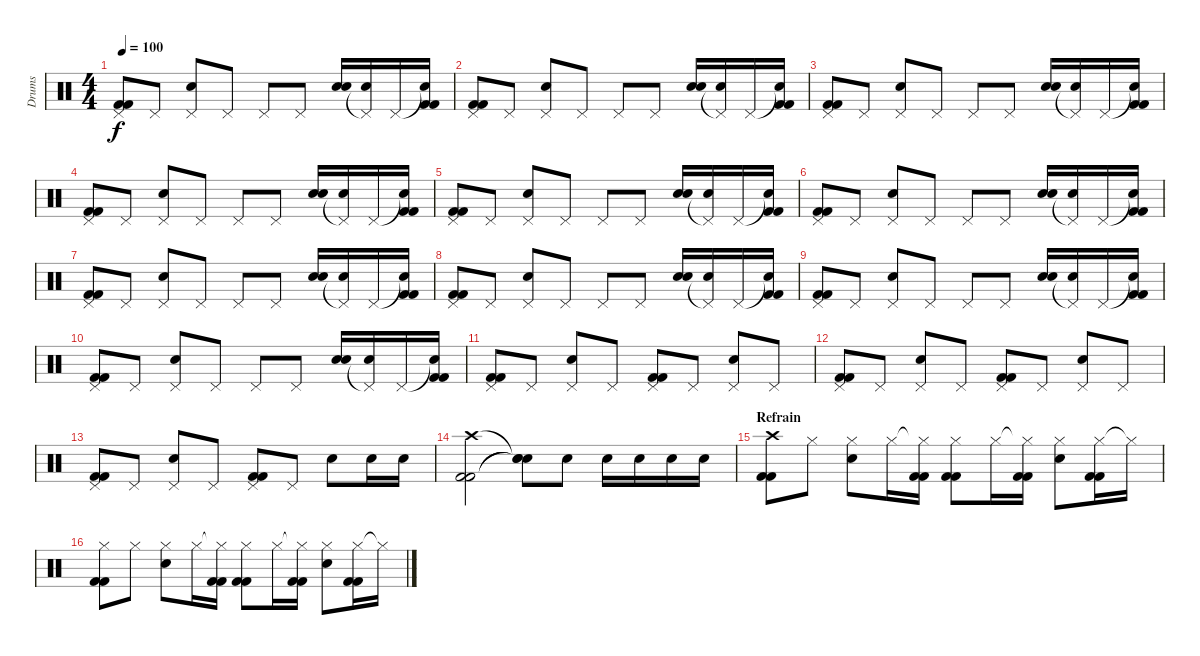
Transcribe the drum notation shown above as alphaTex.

\track ("Drums" "Drums") {instrument percussion}
\staff {score}
\articulation defaults
\ts (4 4)
\tempo 100
\clef neutral
\ks c
("Pedal Hi-Hat (hit)" "Kick (hit) 2" "Kick (hit) 2").8{dy f} "Pedal Hi-Hat (hit)".8 ("Pedal Hi-Hat (hit)" "Electric Snare (hit)").8 "Pedal Hi-Hat (hit)".8 "Pedal Hi-Hat (hit)".8 "Pedal Hi-Hat (hit)".8 ("Electric Snare (hit)" "Electric Snare (hit)").16 ("Pedal Hi-Hat (hit)"{t} "Electric Snare (hit)").16 "Pedal Hi-Hat (hit)".16 ("Snare (hit)"{t} "Kick (hit) 2" "Kick (hit) 2").16 |
("Pedal Hi-Hat (hit)" "Kick (hit) 2" "Kick (hit) 2").8 "Pedal Hi-Hat (hit)".8 ("Pedal Hi-Hat (hit)" "Electric Snare (hit)").8 "Pedal Hi-Hat (hit)".8 "Pedal Hi-Hat (hit)".8 "Pedal Hi-Hat (hit)".8 ("Electric Snare (hit)" "Electric Snare (hit)").16 ("Pedal Hi-Hat (hit)"{t} "Electric Snare (hit)").16 "Pedal Hi-Hat (hit)".16 ("Snare (hit)"{t} "Kick (hit) 2" "Kick (hit) 2").16 |
("Pedal Hi-Hat (hit)" "Kick (hit) 2" "Kick (hit) 2").8 "Pedal Hi-Hat (hit)".8 ("Pedal Hi-Hat (hit)" "Electric Snare (hit)").8 "Pedal Hi-Hat (hit)".8 "Pedal Hi-Hat (hit)".8 "Pedal Hi-Hat (hit)".8 ("Electric Snare (hit)" "Electric Snare (hit)").16 ("Pedal Hi-Hat (hit)"{t} "Electric Snare (hit)").16 "Pedal Hi-Hat (hit)".16 ("Snare (hit)"{t} "Kick (hit) 2" "Kick (hit) 2").16 |
("Pedal Hi-Hat (hit)" "Kick (hit) 2" "Kick (hit) 2").8 "Pedal Hi-Hat (hit)".8 ("Pedal Hi-Hat (hit)" "Electric Snare (hit)").8 "Pedal Hi-Hat (hit)".8 "Pedal Hi-Hat (hit)".8 "Pedal Hi-Hat (hit)".8 ("Electric Snare (hit)" "Electric Snare (hit)").16 ("Pedal Hi-Hat (hit)"{t} "Electric Snare (hit)").16 "Pedal Hi-Hat (hit)".16 ("Snare (hit)"{t} "Kick (hit) 2" "Kick (hit) 2").16 |
("Pedal Hi-Hat (hit)" "Kick (hit) 2" "Kick (hit) 2").8 "Pedal Hi-Hat (hit)".8 ("Pedal Hi-Hat (hit)" "Electric Snare (hit)").8 "Pedal Hi-Hat (hit)".8 "Pedal Hi-Hat (hit)".8 "Pedal Hi-Hat (hit)".8 ("Electric Snare (hit)" "Electric Snare (hit)").16 ("Pedal Hi-Hat (hit)"{t} "Electric Snare (hit)").16 "Pedal Hi-Hat (hit)".16 ("Snare (hit)"{t} "Kick (hit) 2" "Kick (hit) 2").16 |
("Pedal Hi-Hat (hit)" "Kick (hit) 2" "Kick (hit) 2").8 "Pedal Hi-Hat (hit)".8 ("Pedal Hi-Hat (hit)" "Electric Snare (hit)").8 "Pedal Hi-Hat (hit)".8 "Pedal Hi-Hat (hit)".8 "Pedal Hi-Hat (hit)".8 ("Electric Snare (hit)" "Electric Snare (hit)").16 ("Pedal Hi-Hat (hit)"{t} "Electric Snare (hit)").16 "Pedal Hi-Hat (hit)".16 ("Snare (hit)"{t} "Kick (hit) 2" "Kick (hit) 2").16 |
("Pedal Hi-Hat (hit)" "Kick (hit) 2" "Kick (hit) 2").8 "Pedal Hi-Hat (hit)".8 ("Pedal Hi-Hat (hit)" "Electric Snare (hit)").8 "Pedal Hi-Hat (hit)".8 "Pedal Hi-Hat (hit)".8 "Pedal Hi-Hat (hit)".8 ("Electric Snare (hit)" "Electric Snare (hit)").16 ("Pedal Hi-Hat (hit)"{t} "Electric Snare (hit)").16 "Pedal Hi-Hat (hit)".16 ("Snare (hit)"{t} "Kick (hit) 2" "Kick (hit) 2").16 |
("Pedal Hi-Hat (hit)" "Kick (hit) 2" "Kick (hit) 2").8 "Pedal Hi-Hat (hit)".8 ("Pedal Hi-Hat (hit)" "Electric Snare (hit)").8 "Pedal Hi-Hat (hit)".8 "Pedal Hi-Hat (hit)".8 "Pedal Hi-Hat (hit)".8 ("Electric Snare (hit)" "Electric Snare (hit)").16 ("Pedal Hi-Hat (hit)"{t} "Electric Snare (hit)").16 "Pedal Hi-Hat (hit)".16 ("Snare (hit)"{t} "Kick (hit) 2" "Kick (hit) 2").16 |
("Pedal Hi-Hat (hit)" "Kick (hit) 2" "Kick (hit) 2").8 "Pedal Hi-Hat (hit)".8 ("Pedal Hi-Hat (hit)" "Electric Snare (hit)").8 "Pedal Hi-Hat (hit)".8 "Pedal Hi-Hat (hit)".8 "Pedal Hi-Hat (hit)".8 ("Electric Snare (hit)" "Electric Snare (hit)").16 ("Pedal Hi-Hat (hit)"{t} "Electric Snare (hit)").16 "Pedal Hi-Hat (hit)".16 ("Snare (hit)"{t} "Kick (hit) 2" "Kick (hit) 2").16 |
("Pedal Hi-Hat (hit)" "Kick (hit) 2" "Kick (hit) 2").8 "Pedal Hi-Hat (hit)".8 ("Pedal Hi-Hat (hit)" "Electric Snare (hit)").8 "Pedal Hi-Hat (hit)".8 "Pedal Hi-Hat (hit)".8 "Pedal Hi-Hat (hit)".8 ("Electric Snare (hit)" "Electric Snare (hit)").16 ("Pedal Hi-Hat (hit)"{t} "Electric Snare (hit)").16 "Pedal Hi-Hat (hit)".16 ("Snare (hit)"{t} "Kick (hit) 2" "Kick (hit) 2").16 |
("Pedal Hi-Hat (hit)" "Kick (hit) 2" "Kick (hit) 2").8 "Pedal Hi-Hat (hit)".8 ("Pedal Hi-Hat (hit)" "Electric Snare (hit)").8 "Pedal Hi-Hat (hit)".8 ("Pedal Hi-Hat (hit)" "Kick (hit) 2" "Kick (hit) 2").8 "Pedal Hi-Hat (hit)".8 ("Pedal Hi-Hat (hit)" "Electric Snare (hit)").8 "Pedal Hi-Hat (hit)".8 |
("Pedal Hi-Hat (hit)" "Kick (hit) 2" "Kick (hit) 2").8 "Pedal Hi-Hat (hit)".8 ("Pedal Hi-Hat (hit)" "Electric Snare (hit)").8 "Pedal Hi-Hat (hit)".8 ("Pedal Hi-Hat (hit)" "Kick (hit) 2" "Kick (hit) 2").8 "Pedal Hi-Hat (hit)".8 ("Pedal Hi-Hat (hit)" "Electric Snare (hit)").8 "Pedal Hi-Hat (hit)".8 |
("Pedal Hi-Hat (hit)" "Kick (hit) 2" "Kick (hit) 2").8 "Pedal Hi-Hat (hit)".8 ("Pedal Hi-Hat (hit)" "Electric Snare (hit)").8 "Pedal Hi-Hat (hit)".8 ("Pedal Hi-Hat (hit)" "Kick (hit) 2" "Kick (hit) 2").8 "Pedal Hi-Hat (hit)".8 "Electric Snare (hit)".8 "Electric Snare (hit)".16 "Electric Snare (hit)".16 |
("Crash high (hit)" "Kick (hit) 2" "Kick (hit) 2").2 ("Snare (hit)"{t} "Snare (hit)"{t} "Snare (hit)"{t}).8 "Electric Snare (hit)".8 "Electric Snare (hit)".16 "Electric Snare (hit)".16 "Electric Snare (hit)".16 "Electric Snare (hit)".16 |
\section ("" "Refrain")
("Crash high (hit)" "Kick (hit) 2" "Kick (hit) 2").8 "Hi-Hat (closed)".8 ("Hi-Hat (closed)" "Electric Snare (hit)").8 "Hi-Hat (closed)".16 ("Hi-Hat (closed)"{t} "Kick (hit) 2" "Kick (hit) 2").16 ("Hi-Hat (closed)" "Kick (hit) 2" "Kick (hit) 2").8 "Hi-Hat (closed)".16 ("Hi-Hat (closed)"{t} "Kick (hit) 2" "Kick (hit) 2").16 ("Hi-Hat (closed)" "Electric Snare (hit)").8 ("Hi-Hat (closed)" "Kick (hit) 2" "Kick (hit) 2").16 "Hi-Hat (closed)"{t}.16 |
("Hi-Hat (closed)" "Kick (hit) 2" "Kick (hit) 2").8 "Hi-Hat (closed)".8 ("Hi-Hat (closed)" "Electric Snare (hit)").8 "Hi-Hat (closed)".16 ("Hi-Hat (closed)"{t} "Kick (hit) 2" "Kick (hit) 2").16 ("Hi-Hat (closed)" "Kick (hit) 2" "Kick (hit) 2").8 "Hi-Hat (closed)".16 ("Hi-Hat (closed)"{t} "Kick (hit) 2" "Kick (hit) 2").16 ("Hi-Hat (closed)" "Electric Snare (hit)").8 ("Hi-Hat (closed)" "Kick (hit) 2" "Kick (hit) 2").16 "Hi-Hat (closed)"{t}.16
